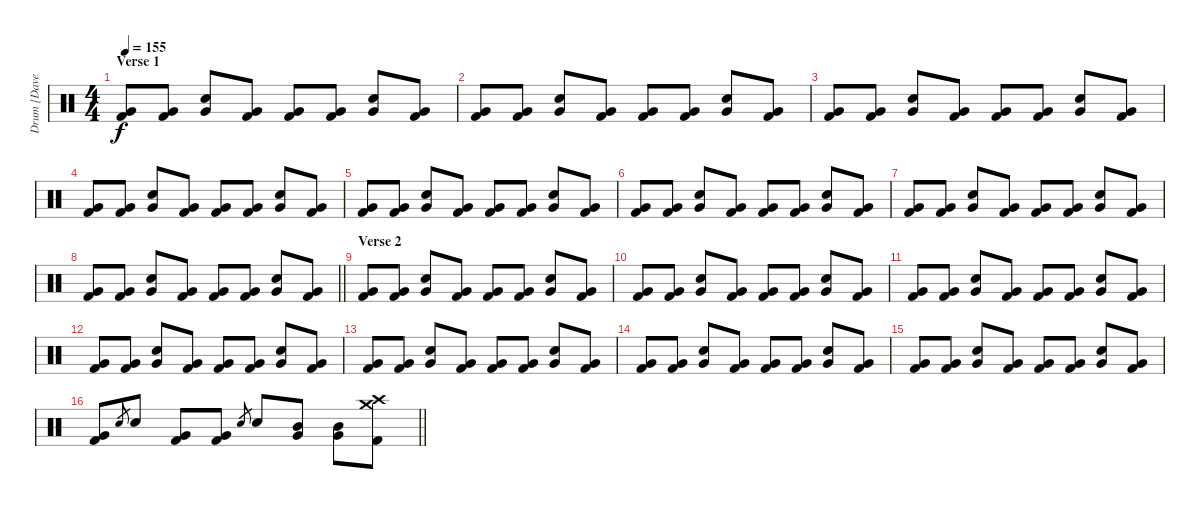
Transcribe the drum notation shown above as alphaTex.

\track ("Drum [Dave Grohl]" "Drum [Dave") {instrument percussion}
\staff {score}
\articulation defaults
\ts (4 4)
\section ("" "Verse 1")
\tempo 155
\clef neutral
\ks c
("Very Low Tom (hit)" "Kick (hit) 2").8{dy f volume 16} ("Very Low Tom (hit)" "Kick (hit) 2").8 ("Very Low Tom (hit)" "Snare (hit) 2").8 ("Very Low Tom (hit)" "Kick (hit) 2").8 ("Very Low Tom (hit)" "Kick (hit) 2").8 ("Very Low Tom (hit)" "Kick (hit) 2").8 ("Very Low Tom (hit)" "Snare (hit) 2").8 ("Very Low Tom (hit)" "Kick (hit) 2").8 |
("Very Low Tom (hit)" "Kick (hit) 2").8 ("Very Low Tom (hit)" "Kick (hit) 2").8 ("Very Low Tom (hit)" "Snare (hit) 2").8 ("Very Low Tom (hit)" "Kick (hit) 2").8 ("Very Low Tom (hit)" "Kick (hit) 2").8 ("Very Low Tom (hit)" "Kick (hit) 2").8 ("Very Low Tom (hit)" "Snare (hit) 2").8 ("Very Low Tom (hit)" "Kick (hit) 2").8 |
("Very Low Tom (hit)" "Kick (hit) 2").8 ("Very Low Tom (hit)" "Kick (hit) 2").8 ("Very Low Tom (hit)" "Snare (hit) 2").8 ("Very Low Tom (hit)" "Kick (hit) 2").8 ("Very Low Tom (hit)" "Kick (hit) 2").8 ("Very Low Tom (hit)" "Kick (hit) 2").8 ("Very Low Tom (hit)" "Snare (hit) 2").8 ("Very Low Tom (hit)" "Kick (hit) 2").8 |
("Very Low Tom (hit)" "Kick (hit) 2").8 ("Very Low Tom (hit)" "Kick (hit) 2").8 ("Very Low Tom (hit)" "Snare (hit) 2").8 ("Very Low Tom (hit)" "Kick (hit) 2").8 ("Very Low Tom (hit)" "Kick (hit) 2").8 ("Very Low Tom (hit)" "Kick (hit) 2").8 ("Very Low Tom (hit)" "Snare (hit) 2").8 ("Very Low Tom (hit)" "Kick (hit) 2").8 |
("Very Low Tom (hit)" "Kick (hit) 2").8 ("Very Low Tom (hit)" "Kick (hit) 2").8 ("Very Low Tom (hit)" "Snare (hit) 2").8 ("Very Low Tom (hit)" "Kick (hit) 2").8 ("Very Low Tom (hit)" "Kick (hit) 2").8 ("Very Low Tom (hit)" "Kick (hit) 2").8 ("Very Low Tom (hit)" "Snare (hit) 2").8 ("Very Low Tom (hit)" "Kick (hit) 2").8 |
("Very Low Tom (hit)" "Kick (hit) 2").8 ("Very Low Tom (hit)" "Kick (hit) 2").8 ("Very Low Tom (hit)" "Snare (hit) 2").8 ("Very Low Tom (hit)" "Kick (hit) 2").8 ("Very Low Tom (hit)" "Kick (hit) 2").8 ("Very Low Tom (hit)" "Kick (hit) 2").8 ("Very Low Tom (hit)" "Snare (hit) 2").8 ("Very Low Tom (hit)" "Kick (hit) 2").8 |
("Very Low Tom (hit)" "Kick (hit) 2").8 ("Very Low Tom (hit)" "Kick (hit) 2").8 ("Very Low Tom (hit)" "Snare (hit) 2").8 ("Very Low Tom (hit)" "Kick (hit) 2").8 ("Very Low Tom (hit)" "Kick (hit) 2").8 ("Very Low Tom (hit)" "Kick (hit) 2").8 ("Very Low Tom (hit)" "Snare (hit) 2").8 ("Very Low Tom (hit)" "Kick (hit) 2").8 |
\barLineRight lightlight
("Very Low Tom (hit)" "Kick (hit) 2").8 ("Very Low Tom (hit)" "Kick (hit) 2").8 ("Very Low Tom (hit)" "Snare (hit) 2").8 ("Very Low Tom (hit)" "Kick (hit) 2").8 ("Very Low Tom (hit)" "Kick (hit) 2").8 ("Very Low Tom (hit)" "Kick (hit) 2").8 ("Very Low Tom (hit)" "Snare (hit) 2").8 ("Very Low Tom (hit)" "Kick (hit) 2").8 |
\section ("" "Verse 2")
("Very Low Tom (hit)" "Kick (hit) 2").8 ("Very Low Tom (hit)" "Kick (hit) 2").8 ("Very Low Tom (hit)" "Snare (hit) 2").8 ("Very Low Tom (hit)" "Kick (hit) 2").8 ("Very Low Tom (hit)" "Kick (hit) 2").8 ("Very Low Tom (hit)" "Kick (hit) 2").8 ("Very Low Tom (hit)" "Snare (hit) 2").8 ("Very Low Tom (hit)" "Kick (hit) 2").8 |
("Very Low Tom (hit)" "Kick (hit) 2").8 ("Very Low Tom (hit)" "Kick (hit) 2").8 ("Very Low Tom (hit)" "Snare (hit) 2").8 ("Very Low Tom (hit)" "Kick (hit) 2").8 ("Very Low Tom (hit)" "Kick (hit) 2").8 ("Very Low Tom (hit)" "Kick (hit) 2").8 ("Very Low Tom (hit)" "Snare (hit) 2").8 ("Very Low Tom (hit)" "Kick (hit) 2").8 |
("Very Low Tom (hit)" "Kick (hit) 2").8 ("Very Low Tom (hit)" "Kick (hit) 2").8 ("Very Low Tom (hit)" "Snare (hit) 2").8 ("Very Low Tom (hit)" "Kick (hit) 2").8 ("Very Low Tom (hit)" "Kick (hit) 2").8 ("Very Low Tom (hit)" "Kick (hit) 2").8 ("Very Low Tom (hit)" "Snare (hit) 2").8 ("Very Low Tom (hit)" "Kick (hit) 2").8 |
("Very Low Tom (hit)" "Kick (hit) 2").8 ("Very Low Tom (hit)" "Kick (hit) 2").8 ("Very Low Tom (hit)" "Snare (hit) 2").8 ("Very Low Tom (hit)" "Kick (hit) 2").8 ("Very Low Tom (hit)" "Kick (hit) 2").8 ("Very Low Tom (hit)" "Kick (hit) 2").8 ("Very Low Tom (hit)" "Snare (hit) 2").8 ("Very Low Tom (hit)" "Kick (hit) 2").8 |
("Very Low Tom (hit)" "Kick (hit) 2").8 ("Very Low Tom (hit)" "Kick (hit) 2").8 ("Very Low Tom (hit)" "Snare (hit) 2").8 ("Very Low Tom (hit)" "Kick (hit) 2").8 ("Very Low Tom (hit)" "Kick (hit) 2").8 ("Very Low Tom (hit)" "Kick (hit) 2").8 ("Very Low Tom (hit)" "Snare (hit) 2").8 ("Very Low Tom (hit)" "Kick (hit) 2").8 |
("Very Low Tom (hit)" "Kick (hit) 2").8 ("Very Low Tom (hit)" "Kick (hit) 2").8 ("Very Low Tom (hit)" "Snare (hit) 2").8 ("Very Low Tom (hit)" "Kick (hit) 2").8 ("Very Low Tom (hit)" "Kick (hit) 2").8 ("Very Low Tom (hit)" "Kick (hit) 2").8 ("Very Low Tom (hit)" "Snare (hit) 2").8 ("Very Low Tom (hit)" "Kick (hit) 2").8 |
("Very Low Tom (hit)" "Kick (hit) 2").8 ("Very Low Tom (hit)" "Kick (hit) 2").8 ("Very Low Tom (hit)" "Snare (hit) 2").8 ("Very Low Tom (hit)" "Kick (hit) 2").8 ("Very Low Tom (hit)" "Kick (hit) 2").8 ("Very Low Tom (hit)" "Kick (hit) 2").8 ("Very Low Tom (hit)" "Snare (hit) 2").8 ("Very Low Tom (hit)" "Kick (hit) 2").8 |
\barLineRight lightlight
("Very Low Tom (hit)" "Kick (hit) 2").8 "Snare (hit) 2".8{gr} "Snare (hit) 2".8 ("Very Low Tom (hit)" "Kick (hit) 2").8 ("Very Low Tom (hit)" "Kick (hit) 2").8 "Snare (hit) 2".8{gr} "Snare (hit) 2".8 ("Mid Tom (hit)" "Very Low Tom (hit)").8 ("Mid Tom (hit)" "Very Low Tom (hit)").8 ("Crash high (hit)" "Crash medium (hit)" "Kick (hit) 2").8
